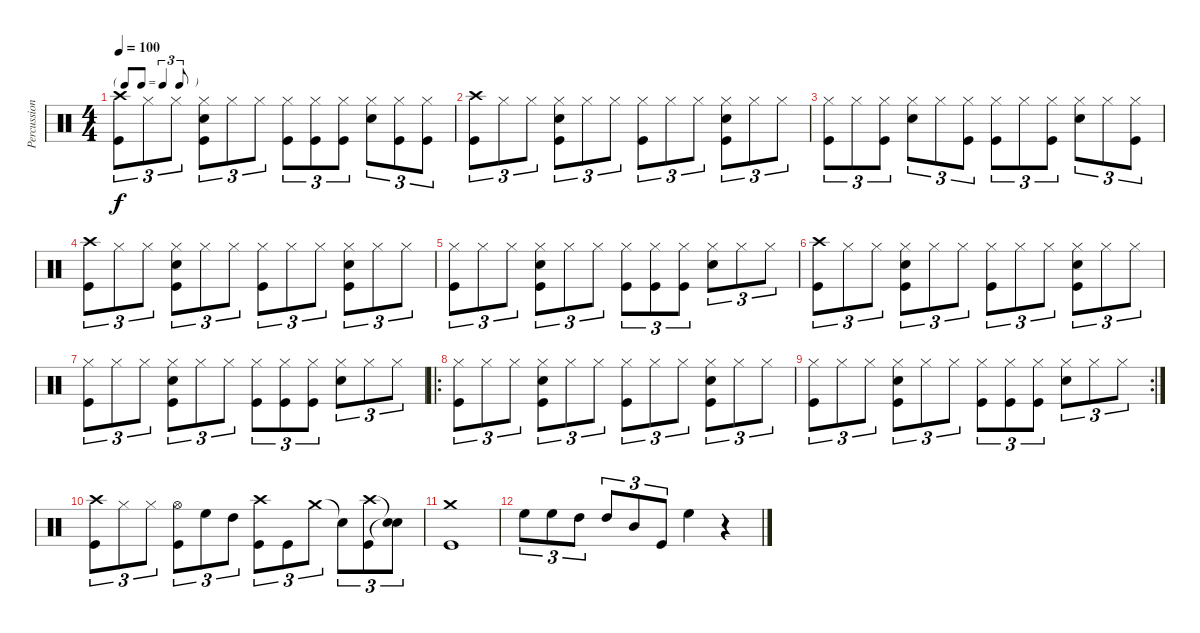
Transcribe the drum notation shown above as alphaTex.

\track ("Percussions" "Percussion") {instrument percussion}
\staff {score}
\articulation defaults
\ts (4 4)
\tf triplet8th
\tempo 100
\clef neutral
\ks c
("Crash high (hit)" "Kick (hit)").8{tu (3 2) dy f} "Hi-Hat (closed)".8{tu (3 2)} "Hi-Hat (closed)".8{tu (3 2)} ("Hi-Hat (closed)" "Snare (hit) 2" "Kick (hit)").8{tu (3 2)} "Hi-Hat (closed)".8{tu (3 2)} "Hi-Hat (closed)".8{tu (3 2)} ("Hi-Hat (closed)" "Kick (hit)").8{tu (3 2)} ("Hi-Hat (closed)" "Kick (hit)").8{tu (3 2)} ("Hi-Hat (closed)" "Kick (hit)").8{tu (3 2)} ("Hi-Hat (closed)" "Snare (hit) 2").8{tu (3 2)} ("Hi-Hat (closed)" "Kick (hit)").8{tu (3 2)} ("Hi-Hat (closed)" "Kick (hit)").8{tu (3 2)} |
("Crash high (hit)" "Kick (hit)").8{tu (3 2)} "Hi-Hat (closed)".8{tu (3 2)} "Hi-Hat (closed)".8{tu (3 2)} ("Hi-Hat (closed)" "Snare (hit) 2" "Kick (hit)").8{tu (3 2)} "Hi-Hat (closed)".8{tu (3 2)} "Hi-Hat (closed)".8{tu (3 2)} ("Hi-Hat (closed)" "Kick (hit)").8{tu (3 2)} "Hi-Hat (closed)".8{tu (3 2)} "Hi-Hat (closed)".8{tu (3 2)} ("Hi-Hat (closed)" "Snare (hit) 2" "Kick (hit)").8{tu (3 2)} "Hi-Hat (closed)".8{tu (3 2)} "Hi-Hat (closed)".8{tu (3 2)} |
("Hi-Hat (closed)" "Kick (hit)").8{tu (3 2)} "Hi-Hat (closed)".8{tu (3 2)} ("Hi-Hat (closed)" "Kick (hit)").8{tu (3 2)} ("Hi-Hat (closed)" "Snare (hit) 2").8{tu (3 2)} "Hi-Hat (closed)".8{tu (3 2)} ("Hi-Hat (closed)" "Kick (hit)").8{tu (3 2)} ("Hi-Hat (closed)" "Kick (hit)").8{tu (3 2)} "Hi-Hat (closed)".8{tu (3 2)} ("Hi-Hat (closed)" "Kick (hit)").8{tu (3 2)} ("Hi-Hat (closed)" "Snare (hit) 2").8{tu (3 2)} "Hi-Hat (closed)".8{tu (3 2)} ("Hi-Hat (closed)" "Kick (hit)").8{tu (3 2)} |
("Crash high (hit)" "Kick (hit)").8{tu (3 2)} "Hi-Hat (closed)".8{tu (3 2)} "Hi-Hat (closed)".8{tu (3 2)} ("Hi-Hat (closed)" "Snare (hit) 2" "Kick (hit)").8{tu (3 2)} "Hi-Hat (closed)".8{tu (3 2)} "Hi-Hat (closed)".8{tu (3 2)} ("Hi-Hat (closed)" "Kick (hit)").8{tu (3 2)} "Hi-Hat (closed)".8{tu (3 2)} "Hi-Hat (closed)".8{tu (3 2)} ("Hi-Hat (closed)" "Snare (hit) 2" "Kick (hit)").8{tu (3 2)} "Hi-Hat (closed)".8{tu (3 2)} "Hi-Hat (closed)".8{tu (3 2)} |
("Hi-Hat (closed)" "Kick (hit)").8{tu (3 2)} "Hi-Hat (closed)".8{tu (3 2)} "Hi-Hat (closed)".8{tu (3 2)} ("Hi-Hat (closed)" "Snare (hit) 2" "Kick (hit)").8{tu (3 2)} "Hi-Hat (closed)".8{tu (3 2)} "Hi-Hat (closed)".8{tu (3 2)} ("Hi-Hat (closed)" "Kick (hit)").8{tu (3 2)} ("Hi-Hat (closed)" "Kick (hit)").8{tu (3 2)} ("Hi-Hat (closed)" "Kick (hit)").8{tu (3 2)} ("Hi-Hat (closed)" "Snare (hit) 2").8{tu (3 2)} "Hi-Hat (closed)".8{tu (3 2)} "Hi-Hat (closed)".8{tu (3 2)} |
("Crash high (hit)" "Kick (hit)").8{tu (3 2)} "Hi-Hat (closed)".8{tu (3 2)} "Hi-Hat (closed)".8{tu (3 2)} ("Hi-Hat (closed)" "Snare (hit) 2" "Kick (hit)").8{tu (3 2)} "Hi-Hat (closed)".8{tu (3 2)} "Hi-Hat (closed)".8{tu (3 2)} ("Hi-Hat (closed)" "Kick (hit)").8{tu (3 2)} "Hi-Hat (closed)".8{tu (3 2)} "Hi-Hat (closed)".8{tu (3 2)} ("Hi-Hat (closed)" "Snare (hit) 2" "Kick (hit)").8{tu (3 2)} "Hi-Hat (closed)".8{tu (3 2)} "Hi-Hat (closed)".8{tu (3 2)} |
("Hi-Hat (closed)" "Kick (hit)").8{tu (3 2)} "Hi-Hat (closed)".8{tu (3 2)} "Hi-Hat (closed)".8{tu (3 2)} ("Hi-Hat (closed)" "Snare (hit) 2" "Kick (hit)").8{tu (3 2)} "Hi-Hat (closed)".8{tu (3 2)} "Hi-Hat (closed)".8{tu (3 2)} ("Hi-Hat (closed)" "Kick (hit)").8{tu (3 2)} ("Hi-Hat (closed)" "Kick (hit)").8{tu (3 2)} ("Hi-Hat (closed)" "Kick (hit)").8{tu (3 2)} ("Hi-Hat (closed)" "Snare (hit) 2").8{tu (3 2)} "Hi-Hat (closed)".8{tu (3 2)} "Hi-Hat (closed)".8{tu (3 2)} |
\ro
("Hi-Hat (closed)" "Kick (hit)").8{tu (3 2)} "Hi-Hat (closed)".8{tu (3 2)} "Hi-Hat (closed)".8{tu (3 2)} ("Hi-Hat (closed)" "Snare (hit) 2" "Kick (hit)").8{tu (3 2)} "Hi-Hat (closed)".8{tu (3 2)} "Hi-Hat (closed)".8{tu (3 2)} ("Hi-Hat (closed)" "Kick (hit)").8{tu (3 2)} "Hi-Hat (closed)".8{tu (3 2)} "Hi-Hat (closed)".8{tu (3 2)} ("Hi-Hat (closed)" "Snare (hit) 2" "Kick (hit)").8{tu (3 2)} "Hi-Hat (closed)".8{tu (3 2)} "Hi-Hat (closed)".8{tu (3 2)} |
\rc 2
("Hi-Hat (closed)" "Kick (hit)").8{tu (3 2)} "Hi-Hat (closed)".8{tu (3 2)} "Hi-Hat (closed)".8{tu (3 2)} ("Hi-Hat (closed)" "Snare (hit) 2" "Kick (hit)").8{tu (3 2)} "Hi-Hat (closed)".8{tu (3 2)} "Hi-Hat (closed)".8{tu (3 2)} ("Hi-Hat (closed)" "Kick (hit)").8{tu (3 2)} ("Hi-Hat (closed)" "Kick (hit)").8{tu (3 2)} ("Hi-Hat (closed)" "Kick (hit)").8{tu (3 2)} ("Hi-Hat (closed)" "Snare (hit) 2").8{tu (3 2)} "Hi-Hat (closed)".8{tu (3 2)} "Hi-Hat (closed)".8{tu (3 2)} |
("Crash high (hit)" "Kick (hit)").8{tu (3 2)} "Hi-Hat (closed)".8{tu (3 2)} "Hi-Hat (closed)".8{tu (3 2)} ("Hi-Hat (open)" "Kick (hit)").8{tu (3 2)} "High Floor Tom (hit)".8{tu (3 2)} "High Tom (hit)".8{tu (3 2)} ("Crash high (hit)" "Kick (hit)").8{tu (3 2)} "Kick (hit)".8{tu (3 2)} "Crash medium (hit)".8{tu (3 2)} "Snare (hit)"{t}.8{tu (3 2)} ("Crash high (hit)" "Kick (hit)").8{tu (3 2)} ("Snare (hit)"{t} "Snare (hit)"{t}).8{tu (3 2)} |
("Crash medium (hit)" "Kick (hit)").1 |
"High Floor Tom (hit)".8{tu (3 2)} "High Floor Tom (hit)".8{tu (3 2)} "High Tom (hit)".8{tu (3 2)} "High Tom (hit)".8{tu (3 2)} "Mid Tom (hit)".8{tu (3 2)} "Kick (hit)".8{tu (3 2)} "High Floor Tom (hit)".4 r.4
